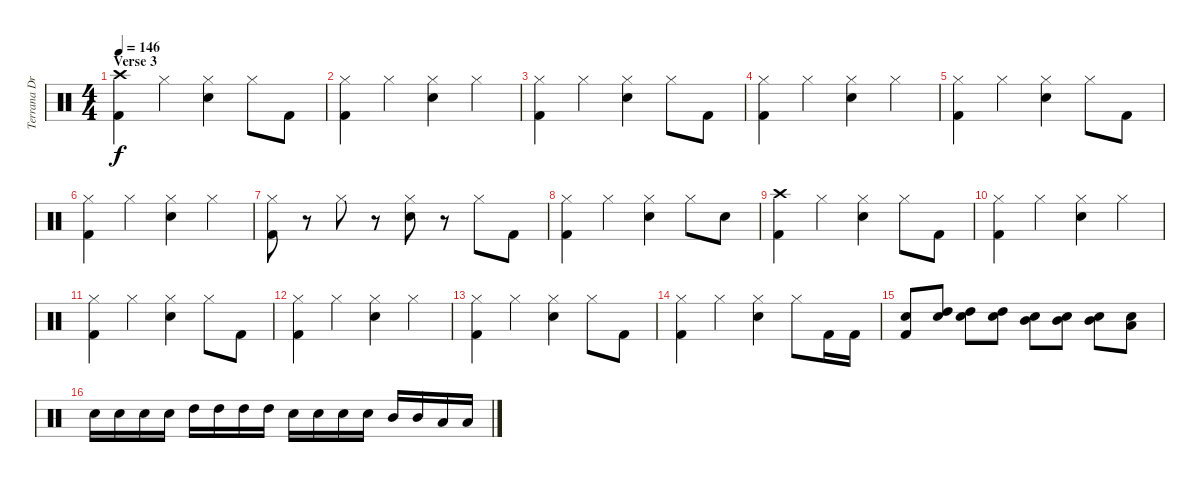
\track ("Terrana Drums" "Terrana Dr") {instrument percussion}
\staff {score}
\articulation defaults
\ts (4 4)
\section ("" "Verse 3")
\tempo 146
\clef neutral
\ks c
("Crash high (hit)" "Kick (hit) 2").4{dy f} "Hi-Hat (closed)".4 ("Hi-Hat (closed)" "Electric Snare (hit)").4 "Hi-Hat (closed)".8 "Kick (hit) 2".8 |
("Hi-Hat (closed)" "Kick (hit) 2").4 "Hi-Hat (closed)".4 ("Hi-Hat (closed)" "Electric Snare (hit)").4 "Hi-Hat (closed)".4 |
("Hi-Hat (closed)" "Kick (hit) 2").4 "Hi-Hat (closed)".4 ("Hi-Hat (closed)" "Electric Snare (hit)").4 "Hi-Hat (closed)".8 "Kick (hit) 2".8 |
("Hi-Hat (closed)" "Kick (hit) 2").4 "Hi-Hat (closed)".4 ("Hi-Hat (closed)" "Electric Snare (hit)").4 "Hi-Hat (closed)".4 |
("Hi-Hat (closed)" "Kick (hit) 2").4 "Hi-Hat (closed)".4 ("Hi-Hat (closed)" "Electric Snare (hit)").4 "Hi-Hat (closed)".8 "Kick (hit) 2".8 |
("Hi-Hat (closed)" "Kick (hit) 2").4 "Hi-Hat (closed)".4 ("Hi-Hat (closed)" "Electric Snare (hit)").4 "Hi-Hat (closed)".4 |
("Hi-Hat (closed)" "Kick (hit) 2").8 r.8 "Hi-Hat (closed)".8 r.8 ("Hi-Hat (closed)" "Electric Snare (hit)").8 r.8 "Hi-Hat (closed)".8 "Kick (hit) 2".8 |
("Hi-Hat (closed)" "Kick (hit) 2").4 "Hi-Hat (closed)".4 ("Hi-Hat (closed)" "Electric Snare (hit)").4 "Hi-Hat (closed)".8 "Electric Snare (hit)".8 |
("Crash high (hit)" "Kick (hit) 2").4 "Hi-Hat (closed)".4 ("Hi-Hat (closed)" "Electric Snare (hit)").4 "Hi-Hat (closed)".8 "Kick (hit) 2".8 |
("Hi-Hat (closed)" "Kick (hit) 2").4 "Hi-Hat (closed)".4 ("Hi-Hat (closed)" "Electric Snare (hit)").4 "Hi-Hat (closed)".4 |
("Hi-Hat (closed)" "Kick (hit) 2").4 "Hi-Hat (closed)".4 ("Hi-Hat (closed)" "Electric Snare (hit)").4 "Hi-Hat (closed)".8 "Kick (hit) 2".8 |
("Hi-Hat (closed)" "Kick (hit) 2").4 "Hi-Hat (closed)".4 ("Hi-Hat (closed)" "Electric Snare (hit)").4 "Hi-Hat (closed)".4 |
("Hi-Hat (closed)" "Kick (hit) 2").4 "Hi-Hat (closed)".4 ("Hi-Hat (closed)" "Electric Snare (hit)").4 "Hi-Hat (closed)".8 "Kick (hit) 2".8 |
("Hi-Hat (closed)" "Kick (hit) 2").4 "Hi-Hat (closed)".4 ("Hi-Hat (closed)" "Electric Snare (hit)").4 "Hi-Hat (closed)".8 "Kick (hit) 2".16 "Kick (hit) 2".16 |
("Electric Snare (hit)" "Kick (hit) 2").8 ("High Tom (hit)" "Electric Snare (hit)").8 ("High Tom (hit)" "Electric Snare (hit)").8 ("High Tom (hit)" "Electric Snare (hit)").8 ("Mid Tom (hit)" "Electric Snare (hit)").8 ("Mid Tom (hit)" "Electric Snare (hit)").8 ("Mid Tom (hit)" "Electric Snare (hit)").8 ("Low Tom (hit)" "Electric Snare (hit)").8 |
"Electric Snare (hit)".16 "Electric Snare (hit)".16 "Electric Snare (hit)".16 "Electric Snare (hit)".16 "High Tom (hit)".16 "High Tom (hit)".16 "High Tom (hit)".16 "High Tom (hit)".16 "Electric Snare (hit)".16 "Electric Snare (hit)".16 "Electric Snare (hit)".16 "Electric Snare (hit)".16 "Mid Tom (hit)".16 "Mid Tom (hit)".16 "Low Tom (hit)".16 "Low Tom (hit)".16
